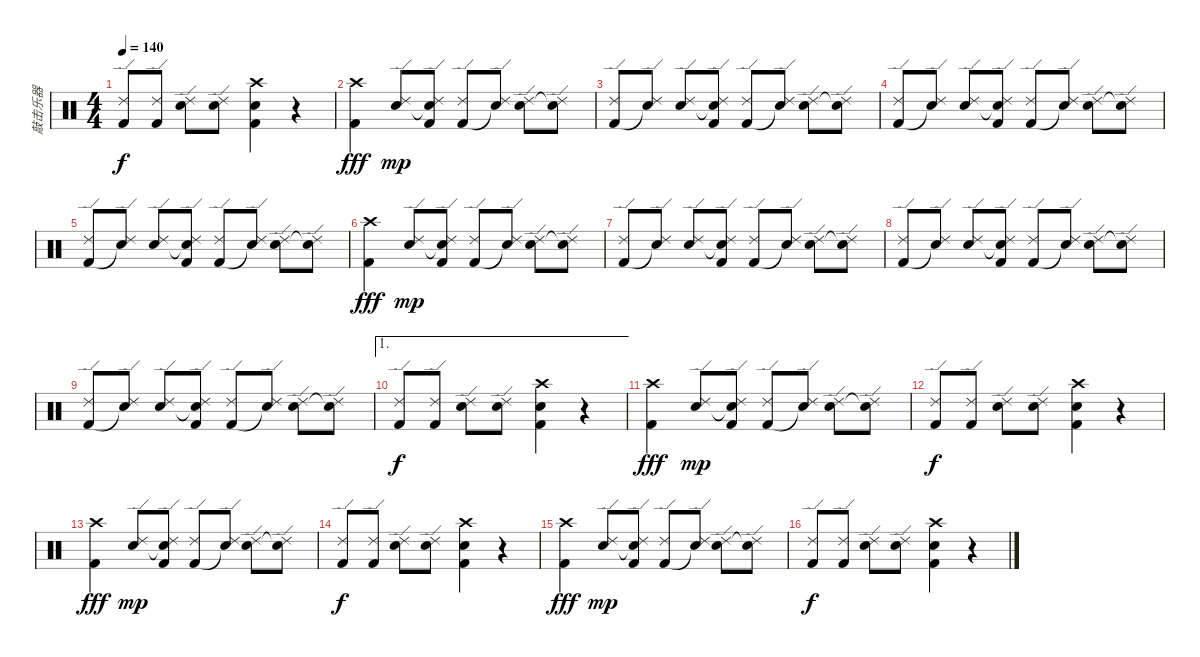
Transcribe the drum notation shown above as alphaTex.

\track ("敲击乐器" "敲击乐器") {instrument percussion}
\staff {score}
\articulation defaults
\ts (4 4)
\tempo 140
\clef neutral
\ks c
("Kick (hit) 2" "Ride (edge) 2").8{dy f} ("Kick (hit) 2" "Ride (edge) 2").8 ("Snare (hit) 2" "Ride (edge) 2").8 ("Snare (hit) 2" "Ride (edge) 2").8 ("Crash high (hit)" "Snare (hit) 2" "Kick (hit) 2").4 r.4 |
("Kick (hit) 2" "Crash high (hit)").4{dy fff} ("Electric Snare (hit)" "Ride (edge) 2").8{dy mp} ("Snare (hit)"{t} "Kick (hit) 2" "Ride (edge) 2").8 ("Kick (hit) 2" "Ride (edge) 2").8 ("Snare (hit)"{t} "Ride (edge) 2").8 ("Electric Snare (hit)" "Ride (edge) 2").8 ("Snare (hit)"{t} "Ride (edge) 2").8 |
("Kick (hit) 2" "Ride (edge) 2").8 ("Snare (hit)"{t} "Ride (edge) 2").8 ("Electric Snare (hit)" "Ride (edge) 2").8 ("Snare (hit)"{t} "Kick (hit) 2" "Ride (edge) 2").8 ("Kick (hit) 2" "Ride (edge) 2").8 ("Snare (hit)"{t} "Ride (edge) 2").8 ("Electric Snare (hit)" "Ride (edge) 2").8 ("Snare (hit)"{t} "Ride (edge) 2").8 |
("Kick (hit) 2" "Ride (edge) 2").8 ("Snare (hit)"{t} "Ride (edge) 2").8 ("Electric Snare (hit)" "Ride (edge) 2").8 ("Snare (hit)"{t} "Kick (hit) 2" "Ride (edge) 2").8 ("Kick (hit) 2" "Ride (edge) 2").8 ("Snare (hit)"{t} "Ride (edge) 2").8 ("Electric Snare (hit)" "Ride (edge) 2").8 ("Snare (hit)"{t} "Ride (edge) 2").8 |
("Kick (hit) 2" "Ride (edge) 2").8 ("Snare (hit)"{t} "Ride (edge) 2").8 ("Electric Snare (hit)" "Ride (edge) 2").8 ("Snare (hit)"{t} "Kick (hit) 2" "Ride (edge) 2").8 ("Kick (hit) 2" "Ride (edge) 2").8 ("Snare (hit)"{t} "Ride (edge) 2").8 ("Electric Snare (hit)" "Ride (edge) 2").8 ("Snare (hit)"{t} "Ride (edge) 2").8 |
("Kick (hit) 2" "Crash high (hit)").4{dy fff} ("Electric Snare (hit)" "Ride (edge) 2").8{dy mp} ("Snare (hit)"{t} "Kick (hit) 2" "Ride (edge) 2").8 ("Kick (hit) 2" "Ride (edge) 2").8 ("Snare (hit)"{t} "Ride (edge) 2").8 ("Electric Snare (hit)" "Ride (edge) 2").8 ("Snare (hit)"{t} "Ride (edge) 2").8 |
("Kick (hit) 2" "Ride (edge) 2").8 ("Snare (hit)"{t} "Ride (edge) 2").8 ("Electric Snare (hit)" "Ride (edge) 2").8 ("Snare (hit)"{t} "Kick (hit) 2" "Ride (edge) 2").8 ("Kick (hit) 2" "Ride (edge) 2").8 ("Snare (hit)"{t} "Ride (edge) 2").8 ("Electric Snare (hit)" "Ride (edge) 2").8 ("Snare (hit)"{t} "Ride (edge) 2").8 |
("Kick (hit) 2" "Ride (edge) 2").8 ("Snare (hit)"{t} "Ride (edge) 2").8 ("Electric Snare (hit)" "Ride (edge) 2").8 ("Snare (hit)"{t} "Kick (hit) 2" "Ride (edge) 2").8 ("Kick (hit) 2" "Ride (edge) 2").8 ("Snare (hit)"{t} "Ride (edge) 2").8 ("Electric Snare (hit)" "Ride (edge) 2").8 ("Snare (hit)"{t} "Ride (edge) 2").8 |
("Kick (hit) 2" "Ride (edge) 2").8 ("Snare (hit)"{t} "Ride (edge) 2").8 ("Electric Snare (hit)" "Ride (edge) 2").8 ("Snare (hit)"{t} "Kick (hit) 2" "Ride (edge) 2").8 ("Kick (hit) 2" "Ride (edge) 2").8 ("Snare (hit)"{t} "Ride (edge) 2").8 ("Electric Snare (hit)" "Ride (edge) 2").8 ("Snare (hit)"{t} "Ride (edge) 2").8 |
\ae 1
("Kick (hit) 2" "Ride (edge) 2").8{dy f} ("Kick (hit) 2" "Ride (edge) 2").8 ("Snare (hit) 2" "Ride (edge) 2").8 ("Snare (hit) 2" "Ride (edge) 2").8 ("Crash high (hit)" "Snare (hit) 2" "Kick (hit) 2").4 r.4 |
("Kick (hit) 2" "Crash high (hit)").4{dy fff} ("Electric Snare (hit)" "Ride (edge) 2").8{dy mp} ("Snare (hit)"{t} "Kick (hit) 2" "Ride (edge) 2").8 ("Kick (hit) 2" "Ride (edge) 2").8 ("Snare (hit)"{t} "Ride (edge) 2").8 ("Electric Snare (hit)" "Ride (edge) 2").8 ("Snare (hit)"{t} "Ride (edge) 2").8 |
("Kick (hit) 2" "Ride (edge) 2").8{dy f} ("Kick (hit) 2" "Ride (edge) 2").8 ("Snare (hit) 2" "Ride (edge) 2").8 ("Snare (hit) 2" "Ride (edge) 2").8 ("Crash high (hit)" "Snare (hit) 2" "Kick (hit) 2").4 r.4 |
("Kick (hit) 2" "Crash high (hit)").4{dy fff} ("Electric Snare (hit)" "Ride (edge) 2").8{dy mp} ("Snare (hit)"{t} "Kick (hit) 2" "Ride (edge) 2").8 ("Kick (hit) 2" "Ride (edge) 2").8 ("Snare (hit)"{t} "Ride (edge) 2").8 ("Electric Snare (hit)" "Ride (edge) 2").8 ("Snare (hit)"{t} "Ride (edge) 2").8 |
("Kick (hit) 2" "Ride (edge) 2").8{dy f} ("Kick (hit) 2" "Ride (edge) 2").8 ("Snare (hit) 2" "Ride (edge) 2").8 ("Snare (hit) 2" "Ride (edge) 2").8 ("Crash high (hit)" "Snare (hit) 2" "Kick (hit) 2").4 r.4 |
("Kick (hit) 2" "Crash high (hit)").4{dy fff} ("Electric Snare (hit)" "Ride (edge) 2").8{dy mp} ("Snare (hit)"{t} "Kick (hit) 2" "Ride (edge) 2").8 ("Kick (hit) 2" "Ride (edge) 2").8 ("Snare (hit)"{t} "Ride (edge) 2").8 ("Electric Snare (hit)" "Ride (edge) 2").8 ("Snare (hit)"{t} "Ride (edge) 2").8 |
("Kick (hit) 2" "Ride (edge) 2").8{dy f} ("Kick (hit) 2" "Ride (edge) 2").8 ("Snare (hit) 2" "Ride (edge) 2").8 ("Snare (hit) 2" "Ride (edge) 2").8 ("Crash high (hit)" "Snare (hit) 2" "Kick (hit) 2").4 r.4
